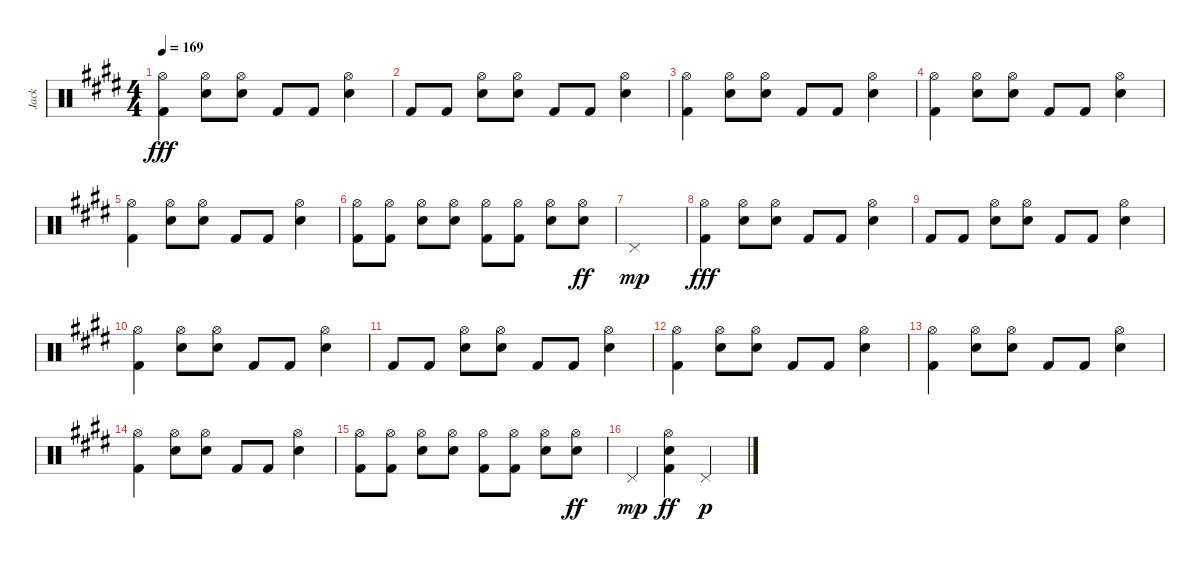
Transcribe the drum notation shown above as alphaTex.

\track ("Jack" "Jack") {instrument percussion}
\staff {score}
\articulation defaults
\ts (4 4)
\tempo 169
\clef neutral
\ks c#minor
("Hi-Hat (open)" "Kick (hit) 2").4{dy fff} ("Hi-Hat (open)" "Electric Snare (hit)").8 ("Hi-Hat (open)" "Electric Snare (hit)").8 "Kick (hit) 2".8 "Kick (hit) 2".8 ("Hi-Hat (open)" "Electric Snare (hit)").4 |
"Kick (hit) 2".8 "Kick (hit) 2".8 ("Hi-Hat (open)" "Electric Snare (hit)").8 ("Hi-Hat (open)" "Electric Snare (hit)").8 "Kick (hit) 2".8 "Kick (hit) 2".8 ("Hi-Hat (open)" "Electric Snare (hit)").4 |
("Hi-Hat (open)" "Kick (hit) 2").4 ("Hi-Hat (open)" "Electric Snare (hit)").8 ("Hi-Hat (open)" "Electric Snare (hit)").8 "Kick (hit) 2".8 "Kick (hit) 2".8 ("Hi-Hat (open)" "Electric Snare (hit)").4 |
("Hi-Hat (open)" "Kick (hit) 2").4 ("Hi-Hat (open)" "Electric Snare (hit)").8 ("Hi-Hat (open)" "Electric Snare (hit)").8 "Kick (hit) 2".8 "Kick (hit) 2".8 ("Hi-Hat (open)" "Electric Snare (hit)").4 |
("Hi-Hat (open)" "Kick (hit) 2").4 ("Hi-Hat (open)" "Electric Snare (hit)").8 ("Hi-Hat (open)" "Electric Snare (hit)").8 "Kick (hit) 2".8 "Kick (hit) 2".8 ("Hi-Hat (open)" "Electric Snare (hit)").4 |
("Hi-Hat (open)" "Kick (hit) 2").8 ("Hi-Hat (open)" "Kick (hit) 2").8 ("Hi-Hat (open)" "Electric Snare (hit)").8 ("Hi-Hat (open)" "Electric Snare (hit)").8 ("Hi-Hat (open)" "Kick (hit) 2").8 ("Hi-Hat (open)" "Kick (hit) 2").8 ("Hi-Hat (open)" "Electric Snare (hit)").8 ("Hi-Hat (open)" "Electric Snare (hit)").8{dy ff} |
"Pedal Hi-Hat (hit)".1{dy mp} |
("Hi-Hat (open)" "Kick (hit) 2").4{dy fff} ("Hi-Hat (open)" "Electric Snare (hit)").8 ("Hi-Hat (open)" "Electric Snare (hit)").8 "Kick (hit) 2".8 "Kick (hit) 2".8 ("Hi-Hat (open)" "Electric Snare (hit)").4 |
"Kick (hit) 2".8 "Kick (hit) 2".8 ("Hi-Hat (open)" "Electric Snare (hit)").8 ("Hi-Hat (open)" "Electric Snare (hit)").8 "Kick (hit) 2".8 "Kick (hit) 2".8 ("Hi-Hat (open)" "Electric Snare (hit)").4 |
("Hi-Hat (open)" "Kick (hit) 2").4 ("Hi-Hat (open)" "Electric Snare (hit)").8 ("Hi-Hat (open)" "Electric Snare (hit)").8 "Kick (hit) 2".8 "Kick (hit) 2".8 ("Hi-Hat (open)" "Electric Snare (hit)").4 |
"Kick (hit) 2".8 "Kick (hit) 2".8 ("Hi-Hat (open)" "Electric Snare (hit)").8 ("Hi-Hat (open)" "Electric Snare (hit)").8 "Kick (hit) 2".8 "Kick (hit) 2".8 ("Hi-Hat (open)" "Electric Snare (hit)").4 |
("Hi-Hat (open)" "Kick (hit) 2").4 ("Hi-Hat (open)" "Electric Snare (hit)").8 ("Hi-Hat (open)" "Electric Snare (hit)").8 "Kick (hit) 2".8 "Kick (hit) 2".8 ("Hi-Hat (open)" "Electric Snare (hit)").4 |
("Hi-Hat (open)" "Kick (hit) 2").4 ("Hi-Hat (open)" "Electric Snare (hit)").8 ("Hi-Hat (open)" "Electric Snare (hit)").8 "Kick (hit) 2".8 "Kick (hit) 2".8 ("Hi-Hat (open)" "Electric Snare (hit)").4 |
("Hi-Hat (open)" "Kick (hit) 2").4 ("Hi-Hat (open)" "Electric Snare (hit)").8 ("Hi-Hat (open)" "Electric Snare (hit)").8 "Kick (hit) 2".8 "Kick (hit) 2".8 ("Hi-Hat (open)" "Electric Snare (hit)").4 |
("Hi-Hat (open)" "Kick (hit) 2").8 ("Hi-Hat (open)" "Kick (hit) 2").8 ("Hi-Hat (open)" "Electric Snare (hit)").8 ("Hi-Hat (open)" "Electric Snare (hit)").8 ("Hi-Hat (open)" "Kick (hit) 2").8 ("Hi-Hat (open)" "Kick (hit) 2").8 ("Hi-Hat (open)" "Electric Snare (hit)").8 ("Hi-Hat (open)" "Electric Snare (hit)").8{dy ff} |
"Pedal Hi-Hat (hit)".4{dy mp} ("Hi-Hat (open)" "Electric Snare (hit)" "Kick (hit) 2").4{dy ff} "Pedal Hi-Hat (hit)".2{dy p}
